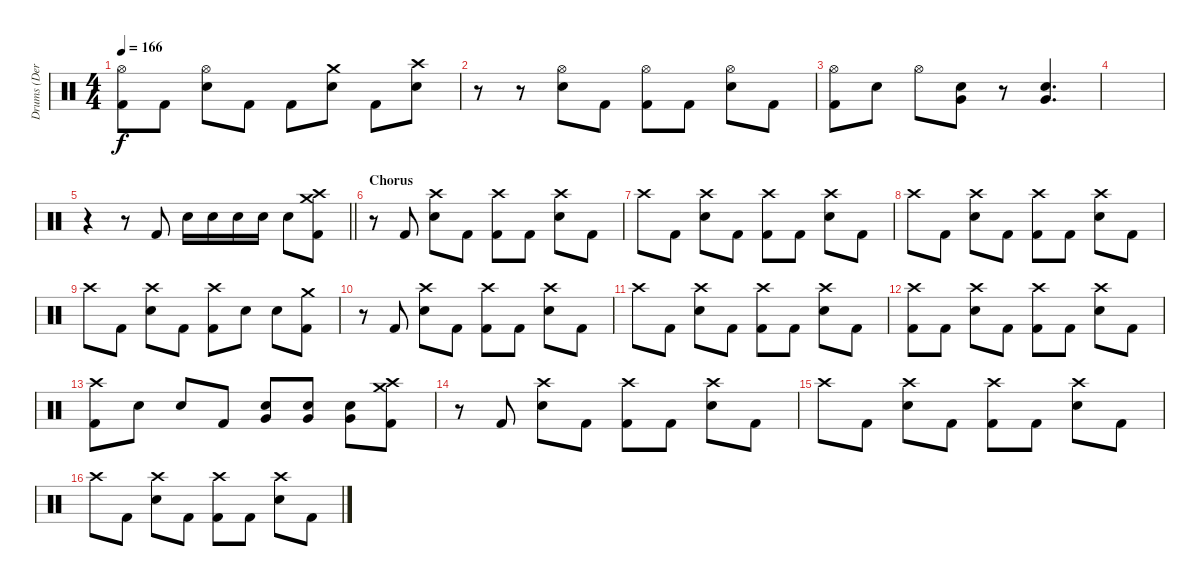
\track ("Drums (Derek)" "Drums (Der") {instrument percussion}
\staff {score}
\articulation defaults
\ts (4 4)
\tempo 166
\clef neutral
\ks c
("Hi-Hat (open)" "Kick (hit) 2").8{dy f} "Kick (hit) 2".8 ("Hi-Hat (open)" "Electric Snare (hit)").8 "Kick (hit) 2".8 "Kick (hit) 2".8 ("Crash medium (hit)" "Electric Snare (hit)").8 "Kick (hit) 2".8 ("Crash high (hit)" "Electric Snare (hit)").8 |
r.8 r.8 ("Hi-Hat (open)" "Electric Snare (hit)").8 "Kick (hit) 2".8 ("Hi-Hat (open)" "Kick (hit) 2").8 "Kick (hit) 2".8 ("Hi-Hat (open)" "Electric Snare (hit)").8 "Kick (hit) 2".8 |
("Hi-Hat (open)" "Kick (hit) 2").8 "Electric Snare (hit)".8 "Hi-Hat (open)".8 ("Very Low Tom (hit)" "Electric Snare (hit)").8 r.8 ("Very Low Tom (hit)" "Electric Snare (hit)").4{d} |
|
\barLineRight lightlight
r.4 r.8 "Kick (hit) 2".8 "Electric Snare (hit)".16 "Electric Snare (hit)".16 "Electric Snare (hit)".16 "Electric Snare (hit)".16 "Electric Snare (hit)".8 ("Crash high (hit)" "Crash medium (hit)" "Kick (hit) 2").8 |
\section ("" "Chorus")
r.8 "Kick (hit) 2".8 ("Crash high (hit)" "Electric Snare (hit)").8 "Kick (hit) 2".8 ("Crash high (hit)" "Kick (hit) 2").8 "Kick (hit) 2".8 ("Crash high (hit)" "Electric Snare (hit)").8 "Kick (hit) 2".8 |
"Crash high (hit)".8 "Kick (hit) 2".8 ("Crash high (hit)" "Electric Snare (hit)").8 "Kick (hit) 2".8 ("Crash high (hit)" "Kick (hit) 2").8 "Kick (hit) 2".8 ("Crash high (hit)" "Electric Snare (hit)").8 "Kick (hit) 2".8 |
"Crash high (hit)".8 "Kick (hit) 2".8 ("Crash high (hit)" "Electric Snare (hit)").8 "Kick (hit) 2".8 ("Crash high (hit)" "Kick (hit) 2").8 "Kick (hit) 2".8 ("Crash high (hit)" "Electric Snare (hit)").8 "Kick (hit) 2".8 |
"Crash high (hit)".8 "Kick (hit) 2".8 ("Crash high (hit)" "Electric Snare (hit)").8 "Kick (hit) 2".8 ("Crash high (hit)" "Kick (hit) 2").8 "Electric Snare (hit)".8 "Electric Snare (hit)".8 ("Crash medium (hit)" "Kick (hit) 2").8 |
r.8 "Kick (hit) 2".8 ("Crash high (hit)" "Electric Snare (hit)").8 "Kick (hit) 2".8 ("Crash high (hit)" "Kick (hit) 2").8 "Kick (hit) 2".8 ("Crash high (hit)" "Electric Snare (hit)").8 "Kick (hit) 2".8 |
"Crash high (hit)".8 "Kick (hit) 2".8 ("Crash high (hit)" "Electric Snare (hit)").8 "Kick (hit) 2".8 ("Crash high (hit)" "Kick (hit) 2").8 "Kick (hit) 2".8 ("Crash high (hit)" "Electric Snare (hit)").8 "Kick (hit) 2".8 |
("Crash high (hit)" "Kick (hit) 2").8 "Kick (hit) 2".8 ("Crash high (hit)" "Electric Snare (hit)").8 "Kick (hit) 2".8 ("Crash high (hit)" "Kick (hit) 2").8 "Kick (hit) 2".8 ("Crash high (hit)" "Electric Snare (hit)").8 "Kick (hit) 2".8 |
("Crash high (hit)" "Kick (hit) 2").8 "Electric Snare (hit)".8 "Electric Snare (hit)".8 "Kick (hit) 2".8 ("Very Low Tom (hit)" "Electric Snare (hit)").8 ("Very Low Tom (hit)" "Electric Snare (hit)").8 ("Very Low Tom (hit)" "Electric Snare (hit)").8 ("Crash high (hit)" "Crash medium (hit)" "Kick (hit) 2").8 |
r.8 "Kick (hit) 2".8 ("Crash high (hit)" "Electric Snare (hit)").8 "Kick (hit) 2".8 ("Crash high (hit)" "Kick (hit) 2").8 "Kick (hit) 2".8 ("Crash high (hit)" "Electric Snare (hit)").8 "Kick (hit) 2".8 |
"Crash high (hit)".8 "Kick (hit) 2".8 ("Crash high (hit)" "Electric Snare (hit)").8 "Kick (hit) 2".8 ("Crash high (hit)" "Kick (hit) 2").8 "Kick (hit) 2".8 ("Crash high (hit)" "Electric Snare (hit)").8 "Kick (hit) 2".8 |
"Crash high (hit)".8 "Kick (hit) 2".8 ("Crash high (hit)" "Electric Snare (hit)").8 "Kick (hit) 2".8 ("Crash high (hit)" "Kick (hit) 2").8 "Kick (hit) 2".8 ("Crash high (hit)" "Electric Snare (hit)").8 "Kick (hit) 2".8
